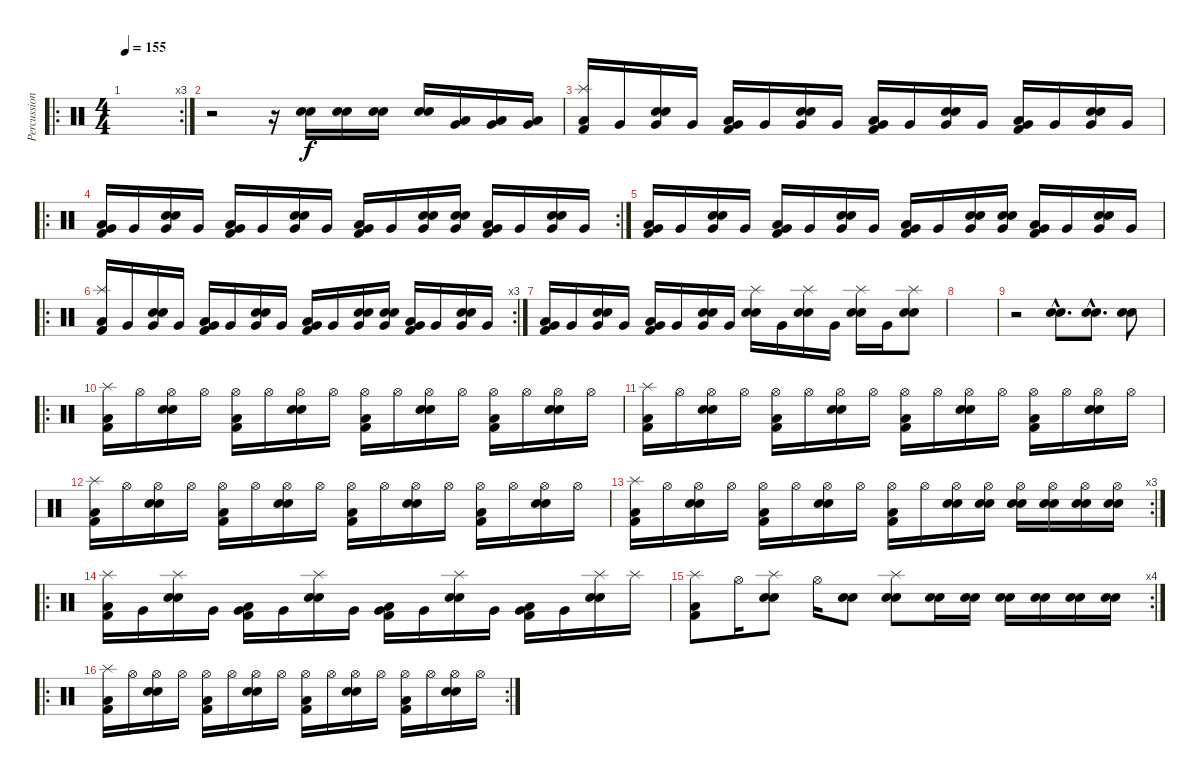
\track ("Percussions" "Percussion") {instrument percussion}
\staff {score}
\articulation defaults
\ro
\rc 3
\ts (4 4)
\tempo 155
\clef neutral
\ks c
|
r.2 r.16 ("Snare (hit) 2" "Electric Snare (hit)").16 ("Snare (hit) 2" "Electric Snare (hit)").16 ("Snare (hit) 2" "Electric Snare (hit)").16 ("Snare (hit) 2" "Electric Snare (hit)").16 ("Very Low Tom (hit)" "Low Floor Tom (hit)").16 ("Very Low Tom (hit)" "Low Floor Tom (hit)").16 ("Very Low Tom (hit)" "Low Floor Tom (hit)").16 |
("Splash (hit)" "Kick (hit) 2" "Low Floor Tom (hit)").16 "Very Low Tom (hit)".16 ("Very Low Tom (hit)" "Electric Snare (hit)" "Snare (hit) 2").16 "Very Low Tom (hit)".16 ("Very Low Tom (hit)" "Low Floor Tom (hit)" "Kick (hit) 2").16 "Very Low Tom (hit)".16 ("Very Low Tom (hit)" "Electric Snare (hit)" "Snare (hit) 2").16 "Very Low Tom (hit)".16 ("Very Low Tom (hit)" "Kick (hit) 2" "Low Floor Tom (hit)").16 "Very Low Tom (hit)".16 ("Very Low Tom (hit)" "Electric Snare (hit)" "Snare (hit) 2").16 "Very Low Tom (hit)".16 ("Very Low Tom (hit)" "Kick (hit) 2" "Low Floor Tom (hit)").16 "Very Low Tom (hit)".16 ("Very Low Tom (hit)" "Electric Snare (hit)" "Snare (hit) 2").16 "Very Low Tom (hit)".16 |
\ro
\rc 2
("Very Low Tom (hit)" "Kick (hit) 2" "Low Floor Tom (hit)").16 "Very Low Tom (hit)".16 ("Very Low Tom (hit)" "Electric Snare (hit)" "Snare (hit) 2").16 "Very Low Tom (hit)".16 ("Very Low Tom (hit)" "Low Floor Tom (hit)" "Kick (hit) 2").16 "Very Low Tom (hit)".16 ("Very Low Tom (hit)" "Electric Snare (hit)" "Snare (hit) 2").16 "Very Low Tom (hit)".16 ("Very Low Tom (hit)" "Kick (hit) 2" "Low Floor Tom (hit)").16 "Very Low Tom (hit)".16 ("Very Low Tom (hit)" "Electric Snare (hit)" "Snare (hit) 2").16 ("Very Low Tom (hit)" "Electric Snare (hit)" "Snare (hit) 2").16 ("Very Low Tom (hit)" "Kick (hit) 2" "Low Floor Tom (hit)").16 "Very Low Tom (hit)".16 ("Very Low Tom (hit)" "Electric Snare (hit)" "Snare (hit) 2").16 "Very Low Tom (hit)".16 |
("Very Low Tom (hit)" "Kick (hit) 2" "Low Floor Tom (hit)").16 "Very Low Tom (hit)".16 ("Very Low Tom (hit)" "Electric Snare (hit)" "Snare (hit) 2").16 "Very Low Tom (hit)".16 ("Very Low Tom (hit)" "Low Floor Tom (hit)" "Kick (hit) 2").16 "Very Low Tom (hit)".16 ("Very Low Tom (hit)" "Electric Snare (hit)" "Snare (hit) 2").16 "Very Low Tom (hit)".16 ("Very Low Tom (hit)" "Kick (hit) 2" "Low Floor Tom (hit)").16 "Very Low Tom (hit)".16 ("Very Low Tom (hit)" "Electric Snare (hit)" "Snare (hit) 2").16 ("Very Low Tom (hit)" "Electric Snare (hit)" "Snare (hit) 2").16 ("Very Low Tom (hit)" "Kick (hit) 2" "Low Floor Tom (hit)").16 "Very Low Tom (hit)".16 ("Very Low Tom (hit)" "Electric Snare (hit)" "Snare (hit) 2").16 "Very Low Tom (hit)".16 |
\ro
\rc 3
("Splash (hit)" "Kick (hit) 2" "Low Floor Tom (hit)").16 "Very Low Tom (hit)".16 ("Very Low Tom (hit)" "Electric Snare (hit)" "Snare (hit) 2").16 "Very Low Tom (hit)".16 ("Very Low Tom (hit)" "Low Floor Tom (hit)" "Kick (hit) 2").16 "Very Low Tom (hit)".16 ("Very Low Tom (hit)" "Electric Snare (hit)" "Snare (hit) 2").16 "Very Low Tom (hit)".16 ("Very Low Tom (hit)" "Kick (hit) 2" "Low Floor Tom (hit)").16 "Very Low Tom (hit)".16 ("Very Low Tom (hit)" "Electric Snare (hit)" "Snare (hit) 2").16 ("Very Low Tom (hit)" "Electric Snare (hit)" "Snare (hit) 2").16 ("Very Low Tom (hit)" "Kick (hit) 2" "Low Floor Tom (hit)").16 "Very Low Tom (hit)".16 ("Very Low Tom (hit)" "Electric Snare (hit)" "Snare (hit) 2").16 "Very Low Tom (hit)".16 |
("Very Low Tom (hit)" "Kick (hit) 2" "Low Floor Tom (hit)").16 "Very Low Tom (hit)".16 ("Very Low Tom (hit)" "Electric Snare (hit)" "Snare (hit) 2").16 "Very Low Tom (hit)".16 ("Very Low Tom (hit)" "Low Floor Tom (hit)" "Kick (hit) 2").16 "Very Low Tom (hit)".16 ("Very Low Tom (hit)" "Electric Snare (hit)" "Snare (hit) 2").16 "Very Low Tom (hit)".16 ("Splash (hit)" "Snare (hit) 2" "Electric Snare (hit)").16 "Very Low Tom (hit)".16 ("Splash (hit)" "Electric Snare (hit)" "Snare (hit) 2").16 "Very Low Tom (hit)".16 ("Splash (hit)" "Electric Snare (hit)" "Snare (hit) 2").16 "Very Low Tom (hit)".16 ("Splash (hit)" "Electric Snare (hit)" "Snare (hit) 2").8 |
|
r.2 ("Snare (hit) 2"{hac} "Electric Snare (hit)"{hac}).8{d} ("Snare (hit) 2"{hac} "Electric Snare (hit)"{hac}).8{d} ("Snare (hit) 2" "Electric Snare (hit)").8 |
\ro
("Splash (hit)" "Kick (hit) 2" "Low Floor Tom (hit)").16 "Hi-Hat (open)".16 ("Hi-Hat (open)" "Snare (hit) 2" "Electric Snare (hit)").16 "Hi-Hat (open)".16 ("Hi-Hat (open)" "Kick (hit) 2" "Low Floor Tom (hit)").16 "Hi-Hat (open)".16 ("Hi-Hat (open)" "Snare (hit) 2" "Electric Snare (hit)").16 "Hi-Hat (open)".16 ("Hi-Hat (open)" "Kick (hit) 2" "Low Floor Tom (hit)").16 "Hi-Hat (open)".16 ("Hi-Hat (open)" "Snare (hit) 2" "Electric Snare (hit)").16 "Hi-Hat (open)".16 ("Hi-Hat (open)" "Kick (hit) 2" "Low Floor Tom (hit)").16 "Hi-Hat (open)".16 ("Hi-Hat (open)" "Snare (hit) 2" "Electric Snare (hit)").16 "Hi-Hat (open)".16 |
("Splash (hit)" "Kick (hit) 2" "Low Floor Tom (hit)").16 "Hi-Hat (open)".16 ("Hi-Hat (open)" "Snare (hit) 2" "Electric Snare (hit)").16 "Hi-Hat (open)".16 ("Hi-Hat (open)" "Kick (hit) 2" "Low Floor Tom (hit)").16 "Hi-Hat (open)".16 ("Hi-Hat (open)" "Snare (hit) 2" "Electric Snare (hit)").16 "Hi-Hat (open)".16 ("Hi-Hat (open)" "Kick (hit) 2" "Low Floor Tom (hit)").16 "Hi-Hat (open)".16 ("Hi-Hat (open)" "Snare (hit) 2" "Electric Snare (hit)").16 "Hi-Hat (open)".16 ("Hi-Hat (open)" "Kick (hit) 2" "Low Floor Tom (hit)").16 "Hi-Hat (open)".16 ("Hi-Hat (open)" "Snare (hit) 2" "Electric Snare (hit)").16 "Hi-Hat (open)".16 |
("Splash (hit)" "Kick (hit) 2" "Low Floor Tom (hit)").16 "Hi-Hat (open)".16 ("Hi-Hat (open)" "Snare (hit) 2" "Electric Snare (hit)").16 "Hi-Hat (open)".16 ("Hi-Hat (open)" "Kick (hit) 2" "Low Floor Tom (hit)").16 "Hi-Hat (open)".16 ("Hi-Hat (open)" "Snare (hit) 2" "Electric Snare (hit)").16 "Hi-Hat (open)".16 ("Hi-Hat (open)" "Kick (hit) 2" "Low Floor Tom (hit)").16 "Hi-Hat (open)".16 ("Hi-Hat (open)" "Snare (hit) 2" "Electric Snare (hit)").16 "Hi-Hat (open)".16 ("Hi-Hat (open)" "Kick (hit) 2" "Low Floor Tom (hit)").16 "Hi-Hat (open)".16 ("Hi-Hat (open)" "Snare (hit) 2" "Electric Snare (hit)").16 "Hi-Hat (open)".16 |
\rc 3
("Splash (hit)" "Kick (hit) 2" "Low Floor Tom (hit)").16 "Hi-Hat (open)".16 ("Hi-Hat (open)" "Snare (hit) 2" "Electric Snare (hit)").16 "Hi-Hat (open)".16 ("Hi-Hat (open)" "Kick (hit) 2" "Low Floor Tom (hit)").16 "Hi-Hat (open)".16 ("Hi-Hat (open)" "Snare (hit) 2" "Electric Snare (hit)").16 "Hi-Hat (open)".16 ("Hi-Hat (open)" "Kick (hit) 2" "Low Floor Tom (hit)").16 "Hi-Hat (open)".16 ("Hi-Hat (open)" "Snare (hit) 2" "Electric Snare (hit)").16 ("Hi-Hat (open)" "Snare (hit) 2" "Electric Snare (hit)").16 ("Hi-Hat (open)" "Snare (hit) 2" "Electric Snare (hit)").16 ("Hi-Hat (open)" "Snare (hit) 2" "Electric Snare (hit)").16 ("Hi-Hat (open)" "Snare (hit) 2" "Electric Snare (hit)").16 ("Hi-Hat (open)" "Snare (hit) 2" "Electric Snare (hit)").16 |
\ro
("Splash (hit)" "Kick (hit) 2" "Low Floor Tom (hit)").16 "Very Low Tom (hit)".16 ("Splash (hit)" "Electric Snare (hit)" "Snare (hit) 2").16 "Very Low Tom (hit)".16 ("Very Low Tom (hit)" "Low Floor Tom (hit)" "Kick (hit) 2").16 "Very Low Tom (hit)".16 ("Splash (hit)" "Electric Snare (hit)" "Snare (hit) 2").16 "Very Low Tom (hit)".16 ("Very Low Tom (hit)" "Kick (hit) 2" "Low Floor Tom (hit)").16 "Very Low Tom (hit)".16 ("Splash (hit)" "Electric Snare (hit)" "Snare (hit) 2").16 "Very Low Tom (hit)".16 ("Very Low Tom (hit)" "Kick (hit) 2" "Low Floor Tom (hit)").16 "Very Low Tom (hit)".16 ("Splash (hit)" "Electric Snare (hit)" "Snare (hit) 2").16 "Splash (hit)".16 |
\rc 4
("Splash (hit)" "Kick (hit) 2" "Low Floor Tom (hit)").8 "Hi-Hat (open)".16 ("Splash (hit)" "Snare (hit) 2" "Electric Snare (hit)").8 "Hi-Hat (open)".16 ("Snare (hit) 2" "Electric Snare (hit)").8 ("Splash (hit)" "Snare (hit) 2" "Electric Snare (hit)").8 ("Snare (hit) 2" "Electric Snare (hit)").16 ("Snare (hit) 2" "Electric Snare (hit)").16 ("Snare (hit) 2" "Electric Snare (hit)").16 ("Snare (hit) 2" "Electric Snare (hit)").16 ("Snare (hit) 2" "Electric Snare (hit)").16 ("Snare (hit) 2" "Electric Snare (hit)").16 |
\ro
\rc 2
("Splash (hit)" "Kick (hit) 2" "Low Floor Tom (hit)").16 "Hi-Hat (open)".16 ("Hi-Hat (open)" "Snare (hit) 2" "Electric Snare (hit)").16 "Hi-Hat (open)".16 ("Hi-Hat (open)" "Kick (hit) 2" "Low Floor Tom (hit)").16 "Hi-Hat (open)".16 ("Hi-Hat (open)" "Snare (hit) 2" "Electric Snare (hit)").16 "Hi-Hat (open)".16 ("Hi-Hat (open)" "Kick (hit) 2" "Low Floor Tom (hit)").16 "Hi-Hat (open)".16 ("Hi-Hat (open)" "Snare (hit) 2" "Electric Snare (hit)").16 "Hi-Hat (open)".16 ("Hi-Hat (open)" "Kick (hit) 2" "Low Floor Tom (hit)").16 "Hi-Hat (open)".16 ("Hi-Hat (open)" "Snare (hit) 2" "Electric Snare (hit)").16 "Hi-Hat (open)".16
